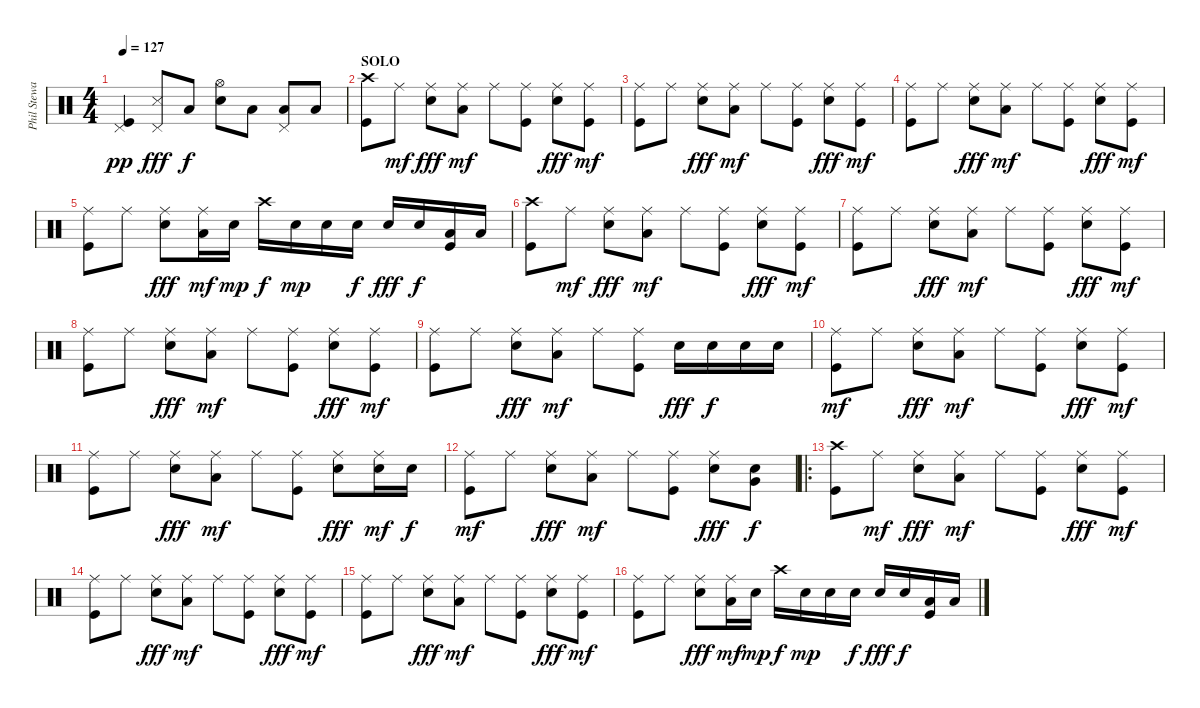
\track ("Phil Steway" "Phil Stewa") {instrument percussion}
\staff {score}
\articulation defaults
\ts (4 4)
\tempo 127
\clef neutral
\ks c
("Pedal Hi-Hat (hit)" "Kick (hit)").4{dy pp} ("Pedal Hi-Hat (hit)" "Snare (side stick) 3").8{dy fff} "Low Tom (hit)".8{dy f} ("Hi-Hat (open)" "Electric Snare (hit)").8 "Low Tom (hit)".8 ("Pedal Hi-Hat (hit)" "Low Tom (hit)").8 "Low Tom (hit)".8 |
\section ("" "SOLO")
("Crash high (hit)" "Kick (hit)").8 "Ride (middle)".8{dy mf} ("Ride (middle)" "Electric Snare (hit)").8{dy fff} ("Ride (middle)" "Low Tom (hit)").8{dy mf} "Ride (middle)".8 ("Ride (middle)" "Kick (hit)").8 ("Ride (middle)" "Electric Snare (hit)").8{dy fff} ("Ride (middle)" "Kick (hit)").8{dy mf} |
("Ride (middle)" "Kick (hit)").8 "Ride (middle)".8 ("Ride (middle)" "Electric Snare (hit)").8{dy fff} ("Ride (middle)" "Low Tom (hit)").8{dy mf} "Ride (middle)".8 ("Ride (middle)" "Kick (hit)").8 ("Ride (middle)" "Electric Snare (hit)").8{dy fff} ("Ride (middle)" "Kick (hit)").8{dy mf} |
("Ride (middle)" "Kick (hit)").8 "Ride (middle)".8 ("Ride (middle)" "Electric Snare (hit)").8{dy fff} ("Ride (middle)" "Low Tom (hit)").8{dy mf} "Ride (middle)".8 ("Ride (middle)" "Kick (hit)").8 ("Ride (middle)" "Electric Snare (hit)").8{dy fff} ("Ride (middle)" "Kick (hit)").8{dy mf} |
("Ride (middle)" "Kick (hit)").8 "Ride (middle)".8 ("Ride (middle)" "Electric Snare (hit)").8{dy fff} ("Ride (middle)" "Low Tom (hit)").16{dy mf} "Electric Snare (hit)".16{dy mp} "Crash high (hit)".16{dy f} "Electric Snare (hit)".16{dy mp} "Electric Snare (hit)".16 "Electric Snare (hit)".16{dy f} "Electric Snare (hit)".16{dy fff} "Electric Snare (hit)".16{dy f} ("Low Tom (hit)" "Kick (hit)").16 "Low Tom (hit)".16 |
("Crash high (hit)" "Kick (hit)").8 "Ride (middle)".8{dy mf} ("Ride (middle)" "Electric Snare (hit)").8{dy fff} ("Ride (middle)" "Low Tom (hit)").8{dy mf} "Ride (middle)".8 ("Ride (middle)" "Kick (hit)").8 ("Ride (middle)" "Electric Snare (hit)").8{dy fff} ("Ride (middle)" "Kick (hit)").8{dy mf} |
("Ride (middle)" "Kick (hit)").8 "Ride (middle)".8 ("Ride (middle)" "Electric Snare (hit)").8{dy fff} ("Ride (middle)" "Low Tom (hit)").8{dy mf} "Ride (middle)".8 ("Ride (middle)" "Kick (hit)").8 ("Ride (middle)" "Electric Snare (hit)").8{dy fff} ("Ride (middle)" "Kick (hit)").8{dy mf} |
("Ride (middle)" "Kick (hit)").8 "Ride (middle)".8 ("Ride (middle)" "Electric Snare (hit)").8{dy fff} ("Ride (middle)" "Low Tom (hit)").8{dy mf} "Ride (middle)".8 ("Ride (middle)" "Kick (hit)").8 ("Ride (middle)" "Electric Snare (hit)").8{dy fff} ("Ride (middle)" "Kick (hit)").8{dy mf} |
("Ride (middle)" "Kick (hit)").8 "Ride (middle)".8 ("Ride (middle)" "Electric Snare (hit)").8{dy fff} ("Ride (middle)" "Low Tom (hit)").8{dy mf} "Ride (middle)".8 ("Ride (middle)" "Kick (hit)").8 "Electric Snare (hit)".16{dy fff} "Electric Snare (hit)".16{dy f} "Electric Snare (hit)".16 "Electric Snare (hit)".16 |
("Ride (middle)" "Kick (hit)").8{dy mf} "Ride (middle)".8 ("Ride (middle)" "Electric Snare (hit)").8{dy fff} ("Ride (middle)" "Low Tom (hit)").8{dy mf} "Ride (middle)".8 ("Ride (middle)" "Kick (hit)").8 ("Ride (middle)" "Electric Snare (hit)").8{dy fff} ("Ride (middle)" "Kick (hit)").8{dy mf} |
("Ride (middle)" "Kick (hit)").8 "Ride (middle)".8 ("Ride (middle)" "Electric Snare (hit)").8{dy fff} ("Ride (middle)" "Low Tom (hit)").8{dy mf} "Ride (middle)".8 ("Ride (middle)" "Kick (hit)").8 ("Ride (middle)" "Electric Snare (hit)").8{dy fff} ("Ride (middle)" "Electric Snare (hit)").16{dy mf} "Electric Snare (hit)".16{dy f} |
("Ride (middle)" "Kick (hit)").8{dy mf} "Ride (middle)".8 ("Ride (middle)" "Electric Snare (hit)").8{dy fff} ("Ride (middle)" "Low Tom (hit)").8{dy mf} "Ride (middle)".8 ("Ride (middle)" "Kick (hit)").8 ("Ride (middle)" "Electric Snare (hit)").8{dy fff} ("Electric Snare (hit)" "Very Low Tom (hit)").8{dy f} |
\ro
("Crash high (hit)" "Kick (hit)").8 "Ride (middle)".8{dy mf} ("Ride (middle)" "Electric Snare (hit)").8{dy fff} ("Ride (middle)" "Low Tom (hit)").8{dy mf} "Ride (middle)".8 ("Ride (middle)" "Kick (hit)").8 ("Ride (middle)" "Electric Snare (hit)").8{dy fff} ("Ride (middle)" "Kick (hit)").8{dy mf} |
("Ride (middle)" "Kick (hit)").8 "Ride (middle)".8 ("Ride (middle)" "Electric Snare (hit)").8{dy fff} ("Ride (middle)" "Low Tom (hit)").8{dy mf} "Ride (middle)".8 ("Ride (middle)" "Kick (hit)").8 ("Ride (middle)" "Electric Snare (hit)").8{dy fff} ("Ride (middle)" "Kick (hit)").8{dy mf} |
("Ride (middle)" "Kick (hit)").8 "Ride (middle)".8 ("Ride (middle)" "Electric Snare (hit)").8{dy fff} ("Ride (middle)" "Low Tom (hit)").8{dy mf} "Ride (middle)".8 ("Ride (middle)" "Kick (hit)").8 ("Ride (middle)" "Electric Snare (hit)").8{dy fff} ("Ride (middle)" "Kick (hit)").8{dy mf} |
("Ride (middle)" "Kick (hit)").8 "Ride (middle)".8 ("Ride (middle)" "Electric Snare (hit)").8{dy fff} ("Ride (middle)" "Low Tom (hit)").16{dy mf} "Electric Snare (hit)".16{dy mp} "Crash high (hit)".16{dy f} "Electric Snare (hit)".16{dy mp} "Electric Snare (hit)".16 "Electric Snare (hit)".16{dy f} "Electric Snare (hit)".16{dy fff} "Electric Snare (hit)".16{dy f} ("Low Tom (hit)" "Kick (hit)").16 "Low Tom (hit)".16
